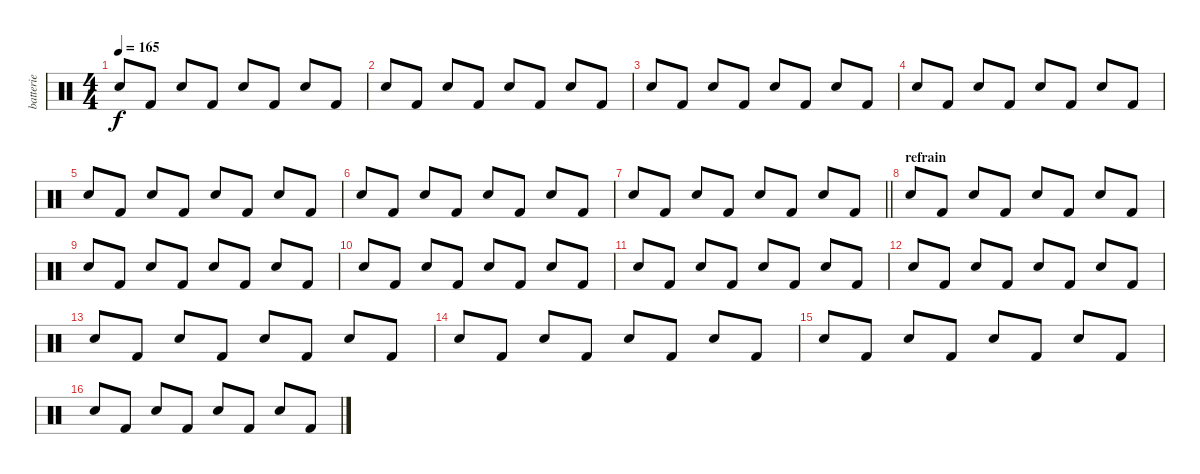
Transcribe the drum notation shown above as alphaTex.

\track ("batterie" "batterie") {instrument percussion}
\staff {score}
\articulation defaults
\ts (4 4)
\tempo 165
\clef neutral
\ks c "Snare (hit) 2".8{dy f} "Kick (hit) 2".8 "Snare (hit) 2".8 "Kick (hit) 2".8 "Snare (hit) 2".8 "Kick (hit) 2".8 "Snare (hit) 2".8 "Kick (hit) 2".8
|
"Snare (hit) 2".8 "Kick (hit) 2".8 "Snare (hit) 2".8 "Kick (hit) 2".8 "Snare (hit) 2".8 "Kick (hit) 2".8 "Snare (hit) 2".8 "Kick (hit) 2".8 |
"Snare (hit) 2".8 "Kick (hit) 2".8 "Snare (hit) 2".8 "Kick (hit) 2".8 "Snare (hit) 2".8 "Kick (hit) 2".8 "Snare (hit) 2".8 "Kick (hit) 2".8 |
"Snare (hit) 2".8 "Kick (hit) 2".8 "Snare (hit) 2".8 "Kick (hit) 2".8 "Snare (hit) 2".8 "Kick (hit) 2".8 "Snare (hit) 2".8 "Kick (hit) 2".8 |
"Snare (hit) 2".8 "Kick (hit) 2".8 "Snare (hit) 2".8 "Kick (hit) 2".8 "Snare (hit) 2".8 "Kick (hit) 2".8 "Snare (hit) 2".8 "Kick (hit) 2".8 |
"Snare (hit) 2".8 "Kick (hit) 2".8 "Snare (hit) 2".8 "Kick (hit) 2".8 "Snare (hit) 2".8 "Kick (hit) 2".8 "Snare (hit) 2".8 "Kick (hit) 2".8 |
\barLineRight lightlight "Snare (hit) 2".8 "Kick (hit) 2".8 "Snare (hit) 2".8 "Kick (hit) 2".8 "Snare (hit) 2".8 "Kick (hit) 2".8 "Snare (hit) 2".8 "Kick (hit) 2".8
|
\section ("" "refrain")
"Snare (hit) 2".8 "Kick (hit) 2".8 "Snare (hit) 2".8 "Kick (hit) 2".8 "Snare (hit) 2".8 "Kick (hit) 2".8 "Snare (hit) 2".8 "Kick (hit) 2".8 |
"Snare (hit) 2".8 "Kick (hit) 2".8 "Snare (hit) 2".8 "Kick (hit) 2".8 "Snare (hit) 2".8 "Kick (hit) 2".8 "Snare (hit) 2".8 "Kick (hit) 2".8 |
"Snare (hit) 2".8 "Kick (hit) 2".8 "Snare (hit) 2".8 "Kick (hit) 2".8 "Snare (hit) 2".8 "Kick (hit) 2".8 "Snare (hit) 2".8 "Kick (hit) 2".8 |
"Snare (hit) 2".8 "Kick (hit) 2".8 "Snare (hit) 2".8 "Kick (hit) 2".8 "Snare (hit) 2".8 "Kick (hit) 2".8 "Snare (hit) 2".8 "Kick (hit) 2".8 |
"Snare (hit) 2".8 "Kick (hit) 2".8 "Snare (hit) 2".8 "Kick (hit) 2".8 "Snare (hit) 2".8 "Kick (hit) 2".8 "Snare (hit) 2".8 "Kick (hit) 2".8 |
"Snare (hit) 2".8 "Kick (hit) 2".8 "Snare (hit) 2".8 "Kick (hit) 2".8 "Snare (hit) 2".8 "Kick (hit) 2".8 "Snare (hit) 2".8 "Kick (hit) 2".8 |
"Snare (hit) 2".8 "Kick (hit) 2".8 "Snare (hit) 2".8 "Kick (hit) 2".8 "Snare (hit) 2".8 "Kick (hit) 2".8 "Snare (hit) 2".8 "Kick (hit) 2".8 |
"Snare (hit) 2".8 "Kick (hit) 2".8 "Snare (hit) 2".8 "Kick (hit) 2".8 "Snare (hit) 2".8 "Kick (hit) 2".8 "Snare (hit) 2".8 "Kick (hit) 2".8 |
"Snare (hit) 2".8 "Kick (hit) 2".8 "Snare (hit) 2".8 "Kick (hit) 2".8 "Snare (hit) 2".8 "Kick (hit) 2".8 "Snare (hit) 2".8 "Kick (hit) 2".8
